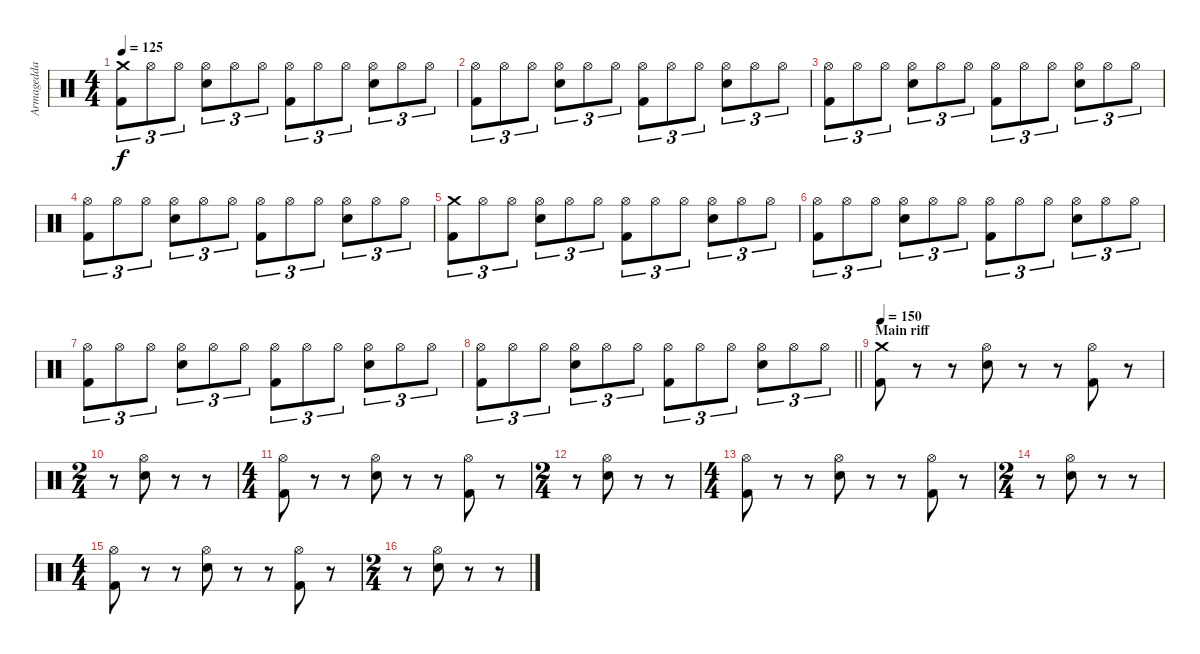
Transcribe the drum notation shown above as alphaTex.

\track ("Armagedda" "Armagedda") {instrument percussion}
\staff {score}
\articulation defaults
\ts (4 4)
\tempo 125
\clef neutral
\ks c
("Crash medium (hit)" "Kick (hit) 2").8{tu (3 2) dy f} "Hi-Hat (open)".8{tu (3 2)} "Hi-Hat (open)".8{tu (3 2)} ("Hi-Hat (open)" "Electric Snare (hit)").8{tu (3 2)} "Hi-Hat (open)".8{tu (3 2)} "Hi-Hat (open)".8{tu (3 2)} ("Hi-Hat (open)" "Kick (hit) 2").8{tu (3 2)} "Hi-Hat (open)".8{tu (3 2)} "Hi-Hat (open)".8{tu (3 2)} ("Hi-Hat (open)" "Electric Snare (hit)").8{tu (3 2)} "Hi-Hat (open)".8{tu (3 2)} "Hi-Hat (open)".8{tu (3 2)} |
("Hi-Hat (open)" "Kick (hit) 2").8{tu (3 2)} "Hi-Hat (open)".8{tu (3 2)} "Hi-Hat (open)".8{tu (3 2)} ("Hi-Hat (open)" "Electric Snare (hit)").8{tu (3 2)} "Hi-Hat (open)".8{tu (3 2)} "Hi-Hat (open)".8{tu (3 2)} ("Hi-Hat (open)" "Kick (hit) 2").8{tu (3 2)} "Hi-Hat (open)".8{tu (3 2)} "Hi-Hat (open)".8{tu (3 2)} ("Hi-Hat (open)" "Electric Snare (hit)").8{tu (3 2)} "Hi-Hat (open)".8{tu (3 2)} "Hi-Hat (open)".8{tu (3 2)} |
("Hi-Hat (open)" "Kick (hit) 2").8{tu (3 2)} "Hi-Hat (open)".8{tu (3 2)} "Hi-Hat (open)".8{tu (3 2)} ("Hi-Hat (open)" "Electric Snare (hit)").8{tu (3 2)} "Hi-Hat (open)".8{tu (3 2)} "Hi-Hat (open)".8{tu (3 2)} ("Hi-Hat (open)" "Kick (hit) 2").8{tu (3 2)} "Hi-Hat (open)".8{tu (3 2)} "Hi-Hat (open)".8{tu (3 2)} ("Hi-Hat (open)" "Electric Snare (hit)").8{tu (3 2)} "Hi-Hat (open)".8{tu (3 2)} "Hi-Hat (open)".8{tu (3 2)} |
("Hi-Hat (open)" "Kick (hit) 2").8{tu (3 2)} "Hi-Hat (open)".8{tu (3 2)} "Hi-Hat (open)".8{tu (3 2)} ("Hi-Hat (open)" "Electric Snare (hit)").8{tu (3 2)} "Hi-Hat (open)".8{tu (3 2)} "Hi-Hat (open)".8{tu (3 2)} ("Hi-Hat (open)" "Kick (hit) 2").8{tu (3 2)} "Hi-Hat (open)".8{tu (3 2)} "Hi-Hat (open)".8{tu (3 2)} ("Hi-Hat (open)" "Electric Snare (hit)").8{tu (3 2)} "Hi-Hat (open)".8{tu (3 2)} "Hi-Hat (open)".8{tu (3 2)} |
("Crash medium (hit)" "Kick (hit) 2").8{tu (3 2)} "Hi-Hat (open)".8{tu (3 2)} "Hi-Hat (open)".8{tu (3 2)} ("Hi-Hat (open)" "Electric Snare (hit)").8{tu (3 2)} "Hi-Hat (open)".8{tu (3 2)} "Hi-Hat (open)".8{tu (3 2)} ("Hi-Hat (open)" "Kick (hit) 2").8{tu (3 2)} "Hi-Hat (open)".8{tu (3 2)} "Hi-Hat (open)".8{tu (3 2)} ("Hi-Hat (open)" "Electric Snare (hit)").8{tu (3 2)} "Hi-Hat (open)".8{tu (3 2)} "Hi-Hat (open)".8{tu (3 2)} |
("Hi-Hat (open)" "Kick (hit) 2").8{tu (3 2)} "Hi-Hat (open)".8{tu (3 2)} "Hi-Hat (open)".8{tu (3 2)} ("Hi-Hat (open)" "Electric Snare (hit)").8{tu (3 2)} "Hi-Hat (open)".8{tu (3 2)} "Hi-Hat (open)".8{tu (3 2)} ("Hi-Hat (open)" "Kick (hit) 2").8{tu (3 2)} "Hi-Hat (open)".8{tu (3 2)} "Hi-Hat (open)".8{tu (3 2)} ("Hi-Hat (open)" "Electric Snare (hit)").8{tu (3 2)} "Hi-Hat (open)".8{tu (3 2)} "Hi-Hat (open)".8{tu (3 2)} |
("Hi-Hat (open)" "Kick (hit) 2").8{tu (3 2)} "Hi-Hat (open)".8{tu (3 2)} "Hi-Hat (open)".8{tu (3 2)} ("Hi-Hat (open)" "Electric Snare (hit)").8{tu (3 2)} "Hi-Hat (open)".8{tu (3 2)} "Hi-Hat (open)".8{tu (3 2)} ("Hi-Hat (open)" "Kick (hit) 2").8{tu (3 2)} "Hi-Hat (open)".8{tu (3 2)} "Hi-Hat (open)".8{tu (3 2)} ("Hi-Hat (open)" "Electric Snare (hit)").8{tu (3 2)} "Hi-Hat (open)".8{tu (3 2)} "Hi-Hat (open)".8{tu (3 2)} |
\barLineRight lightlight
("Hi-Hat (open)" "Kick (hit) 2").8{tu (3 2)} "Hi-Hat (open)".8{tu (3 2)} "Hi-Hat (open)".8{tu (3 2)} ("Hi-Hat (open)" "Electric Snare (hit)").8{tu (3 2)} "Hi-Hat (open)".8{tu (3 2)} "Hi-Hat (open)".8{tu (3 2)} ("Hi-Hat (open)" "Kick (hit) 2").8{tu (3 2)} "Hi-Hat (open)".8{tu (3 2)} "Hi-Hat (open)".8{tu (3 2)} ("Hi-Hat (open)" "Electric Snare (hit)").8{tu (3 2)} "Hi-Hat (open)".8{tu (3 2)} "Hi-Hat (open)".8{tu (3 2)} |
\section ("" "Main riff")
\tempo 150
("Crash medium (hit)" "Kick (hit) 2").8 r.8 r.8 ("Hi-Hat (open)" "Electric Snare (hit)").8 r.8 r.8 ("Hi-Hat (open)" "Kick (hit) 2").8 r.8 |
\ts (2 4)
r.8 ("Hi-Hat (open)" "Electric Snare (hit)").8 r.8 r.8 |
\ts (4 4)
("Hi-Hat (open)" "Kick (hit) 2").8 r.8 r.8 ("Hi-Hat (open)" "Electric Snare (hit)").8 r.8 r.8 ("Hi-Hat (open)" "Kick (hit) 2").8 r.8 |
\ts (2 4)
r.8 ("Hi-Hat (open)" "Electric Snare (hit)").8 r.8 r.8 |
\ts (4 4)
("Hi-Hat (open)" "Kick (hit) 2").8 r.8 r.8 ("Hi-Hat (open)" "Electric Snare (hit)").8 r.8 r.8 ("Hi-Hat (open)" "Kick (hit) 2").8 r.8 |
\ts (2 4)
r.8 ("Hi-Hat (open)" "Electric Snare (hit)").8 r.8 r.8 |
\ts (4 4)
("Hi-Hat (open)" "Kick (hit) 2").8 r.8 r.8 ("Hi-Hat (open)" "Electric Snare (hit)").8 r.8 r.8 ("Hi-Hat (open)" "Kick (hit) 2").8 r.8 |
\ts (2 4)
r.8 ("Hi-Hat (open)" "Electric Snare (hit)").8 r.8 r.8
